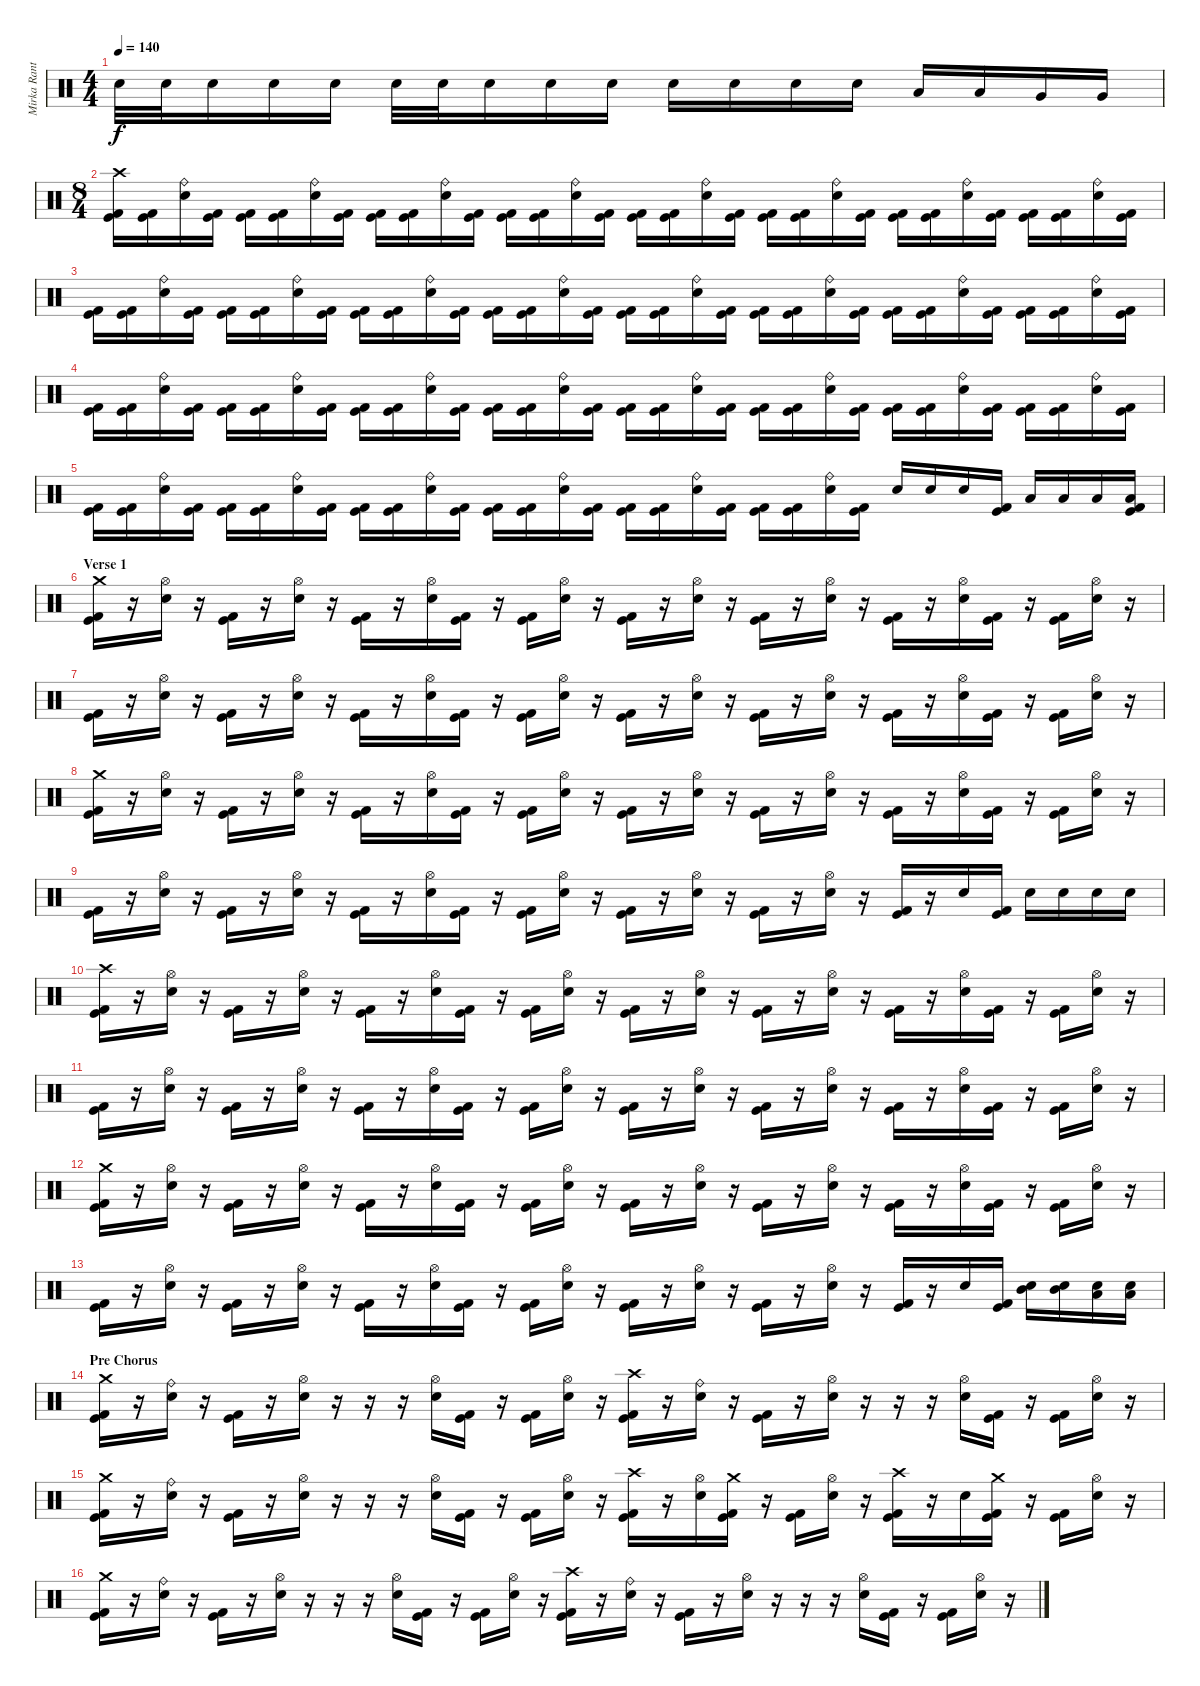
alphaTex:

\track ("Mirka Rantanen" "Mirka Rant") {instrument percussion}
\staff {score}
\articulation defaults
\ts (4 4)
\tempo 140
\clef neutral
\ks c "Electric Snare (hit)".32{dy f} "Electric Snare (hit)".32 "Electric Snare (hit)".16 "Electric Snare (hit)".16 "Electric Snare (hit)".16 "Electric Snare (hit)".32 "Electric Snare (hit)".32 "Electric Snare (hit)".16 "Electric Snare (hit)".16 "Electric Snare (hit)".16 "Electric Snare (hit)".16 "Electric Snare (hit)".16 "Electric Snare (hit)".16 "Electric Snare (hit)".16 "Low Tom (hit)".16 "Low Tom (hit)".16 "Very Low Tom (hit)".16 "Very Low Tom (hit)".16
|
\ts (8 4)
("Crash high (hit)" "Kick (hit) 2" "Kick (hit)").16 ("Kick (hit) 2" "Kick (hit)").16 ("Ride (bell)" "Electric Snare (hit)").16 ("Kick (hit) 2" "Kick (hit)").16 ("Kick (hit) 2" "Kick (hit)").16 ("Kick (hit) 2" "Kick (hit)").16 ("Ride (bell)" "Electric Snare (hit)").16 ("Kick (hit) 2" "Kick (hit)").16 ("Kick (hit) 2" "Kick (hit)").16 ("Kick (hit) 2" "Kick (hit)").16 ("Ride (bell)" "Electric Snare (hit)").16 ("Kick (hit) 2" "Kick (hit)").16 ("Kick (hit) 2" "Kick (hit)").16 ("Kick (hit) 2" "Kick (hit)").16 ("Ride (bell)" "Electric Snare (hit)").16 ("Kick (hit) 2" "Kick (hit)").16 ("Kick (hit) 2" "Kick (hit)").16 ("Kick (hit) 2" "Kick (hit)").16 ("Ride (bell)" "Electric Snare (hit)").16 ("Kick (hit) 2" "Kick (hit)").16 ("Kick (hit) 2" "Kick (hit)").16 ("Kick (hit) 2" "Kick (hit)").16 ("Ride (bell)" "Electric Snare (hit)").16 ("Kick (hit) 2" "Kick (hit)").16 ("Kick (hit) 2" "Kick (hit)").16 ("Kick (hit) 2" "Kick (hit)").16 ("Ride (bell)" "Electric Snare (hit)").16 ("Kick (hit) 2" "Kick (hit)").16 ("Kick (hit) 2" "Kick (hit)").16 ("Kick (hit) 2" "Kick (hit)").16 ("Ride (bell)" "Electric Snare (hit)").16 ("Kick (hit) 2" "Kick (hit)").16 |
("Kick (hit) 2" "Kick (hit)").16 ("Kick (hit) 2" "Kick (hit)").16 ("Ride (bell)" "Electric Snare (hit)").16 ("Kick (hit) 2" "Kick (hit)").16 ("Kick (hit) 2" "Kick (hit)").16 ("Kick (hit) 2" "Kick (hit)").16 ("Ride (bell)" "Electric Snare (hit)").16 ("Kick (hit) 2" "Kick (hit)").16 ("Kick (hit) 2" "Kick (hit)").16 ("Kick (hit) 2" "Kick (hit)").16 ("Ride (bell)" "Electric Snare (hit)").16 ("Kick (hit) 2" "Kick (hit)").16 ("Kick (hit) 2" "Kick (hit)").16 ("Kick (hit) 2" "Kick (hit)").16 ("Ride (bell)" "Electric Snare (hit)").16 ("Kick (hit) 2" "Kick (hit)").16 ("Kick (hit) 2" "Kick (hit)").16 ("Kick (hit) 2" "Kick (hit)").16 ("Ride (bell)" "Electric Snare (hit)").16 ("Kick (hit) 2" "Kick (hit)").16 ("Kick (hit) 2" "Kick (hit)").16 ("Kick (hit) 2" "Kick (hit)").16 ("Ride (bell)" "Electric Snare (hit)").16 ("Kick (hit) 2" "Kick (hit)").16 ("Kick (hit) 2" "Kick (hit)").16 ("Kick (hit) 2" "Kick (hit)").16 ("Ride (bell)" "Electric Snare (hit)").16 ("Kick (hit) 2" "Kick (hit)").16 ("Kick (hit) 2" "Kick (hit)").16 ("Kick (hit) 2" "Kick (hit)").16 ("Ride (bell)" "Electric Snare (hit)").16 ("Kick (hit) 2" "Kick (hit)").16 |
("Kick (hit) 2" "Kick (hit)").16 ("Kick (hit) 2" "Kick (hit)").16 ("Ride (bell)" "Electric Snare (hit)").16 ("Kick (hit) 2" "Kick (hit)").16 ("Kick (hit) 2" "Kick (hit)").16 ("Kick (hit) 2" "Kick (hit)").16 ("Ride (bell)" "Electric Snare (hit)").16 ("Kick (hit) 2" "Kick (hit)").16 ("Kick (hit) 2" "Kick (hit)").16 ("Kick (hit) 2" "Kick (hit)").16 ("Ride (bell)" "Electric Snare (hit)").16 ("Kick (hit) 2" "Kick (hit)").16 ("Kick (hit) 2" "Kick (hit)").16 ("Kick (hit) 2" "Kick (hit)").16 ("Ride (bell)" "Electric Snare (hit)").16 ("Kick (hit) 2" "Kick (hit)").16 ("Kick (hit) 2" "Kick (hit)").16 ("Kick (hit) 2" "Kick (hit)").16 ("Ride (bell)" "Electric Snare (hit)").16 ("Kick (hit) 2" "Kick (hit)").16 ("Kick (hit) 2" "Kick (hit)").16 ("Kick (hit) 2" "Kick (hit)").16 ("Ride (bell)" "Electric Snare (hit)").16 ("Kick (hit) 2" "Kick (hit)").16 ("Kick (hit) 2" "Kick (hit)").16 ("Kick (hit) 2" "Kick (hit)").16 ("Ride (bell)" "Electric Snare (hit)").16 ("Kick (hit) 2" "Kick (hit)").16 ("Kick (hit) 2" "Kick (hit)").16 ("Kick (hit) 2" "Kick (hit)").16 ("Ride (bell)" "Electric Snare (hit)").16 ("Kick (hit) 2" "Kick (hit)").16 |
("Kick (hit) 2" "Kick (hit)").16 ("Kick (hit) 2" "Kick (hit)").16 ("Ride (bell)" "Electric Snare (hit)").16 ("Kick (hit) 2" "Kick (hit)").16 ("Kick (hit) 2" "Kick (hit)").16 ("Kick (hit) 2" "Kick (hit)").16 ("Ride (bell)" "Electric Snare (hit)").16 ("Kick (hit) 2" "Kick (hit)").16 ("Kick (hit) 2" "Kick (hit)").16 ("Kick (hit) 2" "Kick (hit)").16 ("Ride (bell)" "Electric Snare (hit)").16 ("Kick (hit) 2" "Kick (hit)").16 ("Kick (hit) 2" "Kick (hit)").16 ("Kick (hit) 2" "Kick (hit)").16 ("Ride (bell)" "Electric Snare (hit)").16 ("Kick (hit) 2" "Kick (hit)").16 ("Kick (hit) 2" "Kick (hit)").16 ("Kick (hit) 2" "Kick (hit)").16 ("Ride (bell)" "Electric Snare (hit)").16 ("Kick (hit) 2" "Kick (hit)").16 ("Kick (hit) 2" "Kick (hit)").16 ("Kick (hit) 2" "Kick (hit)").16 ("Ride (bell)" "Electric Snare (hit)").16 ("Kick (hit) 2" "Kick (hit)").16 "Electric Snare (hit)".16 "Electric Snare (hit)".16 "Electric Snare (hit)".16 ("Kick (hit) 2" "Kick (hit)").16 "Low Tom (hit)".16 "Low Tom (hit)".16 "Low Tom (hit)".16 ("Low Tom (hit)" "Kick (hit) 2" "Kick (hit)").16 |
\section ("" "Verse 1")
("Crash medium (hit)" "Kick (hit) 2" "Kick (hit)").16 r.16 ("Hi-Hat (open)" "Electric Snare (hit)").16 r.16 ("Kick (hit) 2" "Kick (hit)").16 r.16 ("Hi-Hat (open)" "Electric Snare (hit)").16 r.16 ("Kick (hit) 2" "Kick (hit)").16 r.16 ("Hi-Hat (open)" "Electric Snare (hit)").16 ("Kick (hit) 2" "Kick (hit)").16 r.16 ("Kick (hit) 2" "Kick (hit)").16 ("Hi-Hat (open)" "Electric Snare (hit)").16 r.16 ("Kick (hit) 2" "Kick (hit)").16 r.16 ("Hi-Hat (open)" "Electric Snare (hit)").16 r.16 ("Kick (hit) 2" "Kick (hit)").16 r.16 ("Hi-Hat (open)" "Electric Snare (hit)").16 r.16 ("Kick (hit) 2" "Kick (hit)").16 r.16 ("Hi-Hat (open)" "Electric Snare (hit)").16 ("Kick (hit) 2" "Kick (hit)").16 r.16 ("Kick (hit) 2" "Kick (hit)").16 ("Hi-Hat (open)" "Electric Snare (hit)").16 r.16 |
("Kick (hit) 2" "Kick (hit)").16 r.16 ("Hi-Hat (open)" "Electric Snare (hit)").16 r.16 ("Kick (hit) 2" "Kick (hit)").16 r.16 ("Hi-Hat (open)" "Electric Snare (hit)").16 r.16 ("Kick (hit) 2" "Kick (hit)").16 r.16 ("Hi-Hat (open)" "Electric Snare (hit)").16 ("Kick (hit) 2" "Kick (hit)").16 r.16 ("Kick (hit) 2" "Kick (hit)").16 ("Hi-Hat (open)" "Electric Snare (hit)").16 r.16 ("Kick (hit) 2" "Kick (hit)").16 r.16 ("Hi-Hat (open)" "Electric Snare (hit)").16 r.16 ("Kick (hit) 2" "Kick (hit)").16 r.16 ("Hi-Hat (open)" "Electric Snare (hit)").16 r.16 ("Kick (hit) 2" "Kick (hit)").16 r.16 ("Hi-Hat (open)" "Electric Snare (hit)").16 ("Kick (hit) 2" "Kick (hit)").16 r.16 ("Kick (hit) 2" "Kick (hit)").16 ("Hi-Hat (open)" "Electric Snare (hit)").16 r.16 |
("Crash medium (hit)" "Kick (hit) 2" "Kick (hit)").16 r.16 ("Hi-Hat (open)" "Electric Snare (hit)").16 r.16 ("Kick (hit) 2" "Kick (hit)").16 r.16 ("Hi-Hat (open)" "Electric Snare (hit)").16 r.16 ("Kick (hit) 2" "Kick (hit)").16 r.16 ("Hi-Hat (open)" "Electric Snare (hit)").16 ("Kick (hit) 2" "Kick (hit)").16 r.16 ("Kick (hit) 2" "Kick (hit)").16 ("Hi-Hat (open)" "Electric Snare (hit)").16 r.16 ("Kick (hit) 2" "Kick (hit)").16 r.16 ("Hi-Hat (open)" "Electric Snare (hit)").16 r.16 ("Kick (hit) 2" "Kick (hit)").16 r.16 ("Hi-Hat (open)" "Electric Snare (hit)").16 r.16 ("Kick (hit) 2" "Kick (hit)").16 r.16 ("Hi-Hat (open)" "Electric Snare (hit)").16 ("Kick (hit) 2" "Kick (hit)").16 r.16 ("Kick (hit) 2" "Kick (hit)").16 ("Hi-Hat (open)" "Electric Snare (hit)").16 r.16 |
("Kick (hit) 2" "Kick (hit)").16 r.16 ("Hi-Hat (open)" "Electric Snare (hit)").16 r.16 ("Kick (hit) 2" "Kick (hit)").16 r.16 ("Hi-Hat (open)" "Electric Snare (hit)").16 r.16 ("Kick (hit) 2" "Kick (hit)").16 r.16 ("Hi-Hat (open)" "Electric Snare (hit)").16 ("Kick (hit) 2" "Kick (hit)").16 r.16 ("Kick (hit) 2" "Kick (hit)").16 ("Hi-Hat (open)" "Electric Snare (hit)").16 r.16 ("Kick (hit) 2" "Kick (hit)").16 r.16 ("Hi-Hat (open)" "Electric Snare (hit)").16 r.16 ("Kick (hit) 2" "Kick (hit)").16 r.16 ("Hi-Hat (open)" "Electric Snare (hit)").16 r.16 ("Kick (hit) 2" "Kick (hit)").16 r.16 "Electric Snare (hit)".16 ("Kick (hit) 2" "Kick (hit)").16 "Electric Snare (hit)".16 "Electric Snare (hit)".16 "Electric Snare (hit)".16 "Electric Snare (hit)".16 |
("Crash high (hit)" "Kick (hit) 2" "Kick (hit)").16 r.16 ("Hi-Hat (open)" "Electric Snare (hit)").16 r.16 ("Kick (hit) 2" "Kick (hit)").16 r.16 ("Hi-Hat (open)" "Electric Snare (hit)").16 r.16 ("Kick (hit) 2" "Kick (hit)").16 r.16 ("Hi-Hat (open)" "Electric Snare (hit)").16 ("Kick (hit) 2" "Kick (hit)").16 r.16 ("Kick (hit) 2" "Kick (hit)").16 ("Hi-Hat (open)" "Electric Snare (hit)").16 r.16 ("Kick (hit) 2" "Kick (hit)").16 r.16 ("Hi-Hat (open)" "Electric Snare (hit)").16 r.16 ("Kick (hit) 2" "Kick (hit)").16 r.16 ("Hi-Hat (open)" "Electric Snare (hit)").16 r.16 ("Kick (hit) 2" "Kick (hit)").16 r.16 ("Hi-Hat (open)" "Electric Snare (hit)").16 ("Kick (hit) 2" "Kick (hit)").16 r.16 ("Kick (hit) 2" "Kick (hit)").16 ("Hi-Hat (open)" "Electric Snare (hit)").16 r.16 |
("Kick (hit) 2" "Kick (hit)").16 r.16 ("Hi-Hat (open)" "Electric Snare (hit)").16 r.16 ("Kick (hit) 2" "Kick (hit)").16 r.16 ("Hi-Hat (open)" "Electric Snare (hit)").16 r.16 ("Kick (hit) 2" "Kick (hit)").16 r.16 ("Hi-Hat (open)" "Electric Snare (hit)").16 ("Kick (hit) 2" "Kick (hit)").16 r.16 ("Kick (hit) 2" "Kick (hit)").16 ("Hi-Hat (open)" "Electric Snare (hit)").16 r.16 ("Kick (hit) 2" "Kick (hit)").16 r.16 ("Hi-Hat (open)" "Electric Snare (hit)").16 r.16 ("Kick (hit) 2" "Kick (hit)").16 r.16 ("Hi-Hat (open)" "Electric Snare (hit)").16 r.16 ("Kick (hit) 2" "Kick (hit)").16 r.16 ("Hi-Hat (open)" "Electric Snare (hit)").16 ("Kick (hit) 2" "Kick (hit)").16 r.16 ("Kick (hit) 2" "Kick (hit)").16 ("Hi-Hat (open)" "Electric Snare (hit)").16 r.16 |
("Crash medium (hit)" "Kick (hit) 2" "Kick (hit)").16 r.16 ("Hi-Hat (open)" "Electric Snare (hit)").16 r.16 ("Kick (hit) 2" "Kick (hit)").16 r.16 ("Hi-Hat (open)" "Electric Snare (hit)").16 r.16 ("Kick (hit) 2" "Kick (hit)").16 r.16 ("Hi-Hat (open)" "Electric Snare (hit)").16 ("Kick (hit) 2" "Kick (hit)").16 r.16 ("Kick (hit) 2" "Kick (hit)").16 ("Hi-Hat (open)" "Electric Snare (hit)").16 r.16 ("Kick (hit) 2" "Kick (hit)").16 r.16 ("Hi-Hat (open)" "Electric Snare (hit)").16 r.16 ("Kick (hit) 2" "Kick (hit)").16 r.16 ("Hi-Hat (open)" "Electric Snare (hit)").16 r.16 ("Kick (hit) 2" "Kick (hit)").16 r.16 ("Hi-Hat (open)" "Electric Snare (hit)").16 ("Kick (hit) 2" "Kick (hit)").16 r.16 ("Kick (hit) 2" "Kick (hit)").16 ("Hi-Hat (open)" "Electric Snare (hit)").16 r.16 |
("Kick (hit) 2" "Kick (hit)").16 r.16 ("Hi-Hat (open)" "Electric Snare (hit)").16 r.16 ("Kick (hit) 2" "Kick (hit)").16 r.16 ("Hi-Hat (open)" "Electric Snare (hit)").16 r.16 ("Kick (hit) 2" "Kick (hit)").16 r.16 ("Hi-Hat (open)" "Electric Snare (hit)").16 ("Kick (hit) 2" "Kick (hit)").16 r.16 ("Kick (hit) 2" "Kick (hit)").16 ("Hi-Hat (open)" "Electric Snare (hit)").16 r.16 ("Kick (hit) 2" "Kick (hit)").16 r.16 ("Hi-Hat (open)" "Electric Snare (hit)").16 r.16 ("Kick (hit) 2" "Kick (hit)").16 r.16 ("Hi-Hat (open)" "Electric Snare (hit)").16 r.16 ("Kick (hit) 2" "Kick (hit)").16 r.16 "Electric Snare (hit)".16 ("Kick (hit) 2" "Kick (hit)").16 ("Mid Tom (hit)" "Electric Snare (hit)").16 ("Mid Tom (hit)" "Electric Snare (hit)").16 ("Low Tom (hit)" "Electric Snare (hit)").16 ("Low Tom (hit)" "Electric Snare (hit)").16 |
\section ("" "Pre Chorus")
("Crash medium (hit)" "Kick (hit) 2" "Kick (hit)").16 r.16 ("Ride (bell)" "Electric Snare (hit)").16 r.16 ("Kick (hit) 2" "Kick (hit)").16 r.16 ("Hi-Hat (open)" "Electric Snare (hit)").16 r.16 r.16 r.16 ("Hi-Hat (open)" "Electric Snare (hit)").16 ("Kick (hit) 2" "Kick (hit)").16 r.16 ("Kick (hit) 2" "Kick (hit)").16 ("Hi-Hat (open)" "Electric Snare (hit)").16 r.16 ("Crash high (hit)" "Kick (hit) 2" "Kick (hit)").16 r.16 ("Ride (bell)" "Electric Snare (hit)").16 r.16 ("Kick (hit) 2" "Kick (hit)").16 r.16 ("Hi-Hat (open)" "Electric Snare (hit)").16 r.16 r.16 r.16 ("Hi-Hat (open)" "Electric Snare (hit)").16 ("Kick (hit) 2" "Kick (hit)").16 r.16 ("Kick (hit) 2" "Kick (hit)").16 ("Hi-Hat (open)" "Electric Snare (hit)").16 r.16 |
("Crash medium (hit)" "Kick (hit) 2" "Kick (hit)").16 r.16 ("Ride (bell)" "Electric Snare (hit)").16 r.16 ("Kick (hit) 2" "Kick (hit)").16 r.16 ("Hi-Hat (open)" "Electric Snare (hit)").16 r.16 r.16 r.16 ("Hi-Hat (open)" "Electric Snare (hit)").16 ("Kick (hit) 2" "Kick (hit)").16 r.16 ("Kick (hit) 2" "Kick (hit)").16 ("Hi-Hat (open)" "Electric Snare (hit)").16 r.16 ("Crash high (hit)" "Kick (hit) 2" "Kick (hit)").16 r.16 ("Hi-Hat (open)" "Electric Snare (hit)").16 ("Crash medium (hit)" "Kick (hit) 2" "Kick (hit)").16 r.16 ("Kick (hit) 2" "Kick (hit)").16 ("Hi-Hat (open)" "Electric Snare (hit)").16 r.16 ("Crash high (hit)" "Kick (hit) 2" "Kick (hit)").16 r.16 "Electric Snare (hit)".16 ("Crash medium (hit)" "Kick (hit) 2" "Kick (hit)").16 r.16 ("Kick (hit) 2" "Kick (hit)").16 ("Hi-Hat (open)" "Electric Snare (hit)").16 r.16 |
("Crash medium (hit)" "Kick (hit) 2" "Kick (hit)").16 r.16 ("Ride (bell)" "Electric Snare (hit)").16 r.16 ("Kick (hit) 2" "Kick (hit)").16 r.16 ("Hi-Hat (open)" "Electric Snare (hit)").16 r.16 r.16 r.16 ("Hi-Hat (open)" "Electric Snare (hit)").16 ("Kick (hit) 2" "Kick (hit)").16 r.16 ("Kick (hit) 2" "Kick (hit)").16 ("Hi-Hat (open)" "Electric Snare (hit)").16 r.16 ("Crash high (hit)" "Kick (hit) 2" "Kick (hit)").16 r.16 ("Ride (bell)" "Electric Snare (hit)").16 r.16 ("Kick (hit) 2" "Kick (hit)").16 r.16 ("Hi-Hat (open)" "Electric Snare (hit)").16 r.16 r.16 r.16 ("Hi-Hat (open)" "Electric Snare (hit)").16 ("Kick (hit) 2" "Kick (hit)").16 r.16 ("Kick (hit) 2" "Kick (hit)").16 ("Hi-Hat (open)" "Electric Snare (hit)").16 r.16
